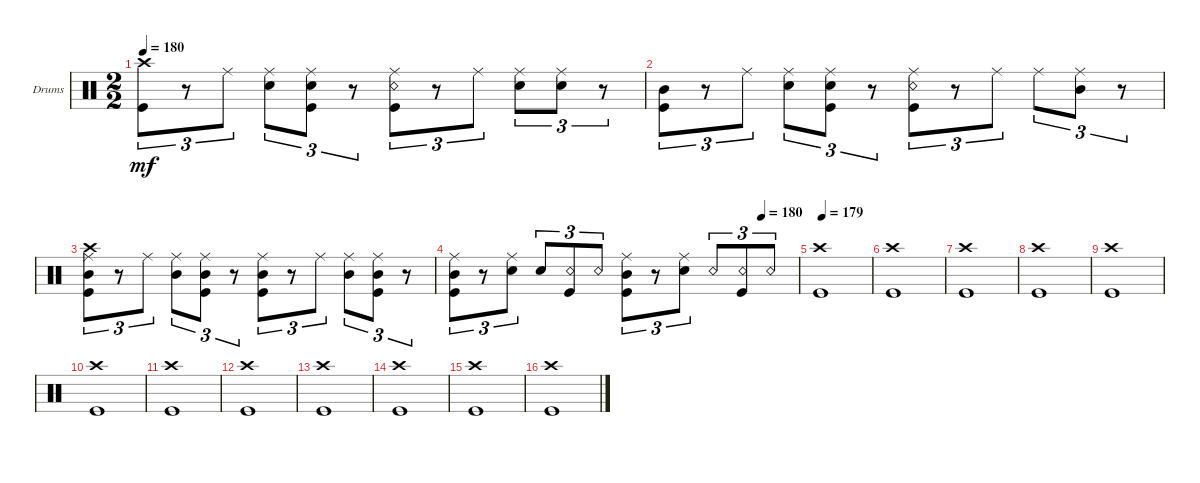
\defaultSystemsLayout 4
\bracketExtendMode groupsimilarinstruments
\firstSystemTrackNameOrientation horizontal
\otherSystemsTrackNameOrientation horizontal
\track ("Drumkit" "Drums") {instrument percussion}
\staff {score}
\articulation defaults
\ts (2 2)
\tempo 180
\clef neutral
\ks c
("Kick (hit)" "Crash high (hit)").8{tu (3 2) dy mf} r.8{tu (3 2)} "Ride (middle)".8{tu (3 2)} ("Snare (hit) 2" "Ride (middle)").8{tu (3 2)} ("Kick (hit)" "Snare (hit) 2" "Ride (middle)").8{tu (3 2)} r.8{tu (3 2)} ("Kick (hit)" "Ride (middle)" "Snare (rim shot)").8{tu (3 2)} r.8{tu (3 2)} "Ride (middle)".8{tu (3 2)} ("Snare (hit) 2" "Ride (middle)").8{tu (3 2)} ("Snare (hit) 2" "Ride (middle)").8{tu (3 2)} r.8{tu (3 2)} |
("Kick (hit)" "Mid Tom (hit)").8{tu (3 2)} r.8{tu (3 2)} "Ride (middle)".8{tu (3 2)} ("Snare (hit) 2" "Ride (middle)").8{tu (3 2)} ("Kick (hit)" "Snare (hit) 2" "Ride (middle)").8{tu (3 2)} r.8{tu (3 2)} ("Kick (hit)" "Ride (middle)" "Snare (rim shot)").8{tu (3 2)} r.8{tu (3 2)} "Ride (middle)".8{tu (3 2)} "Ride (middle)".8{tu (3 2)} ("Mid Tom (hit)" "Ride (middle)").8{tu (3 2)} r.8{tu (3 2)} |
("Kick (hit)" "Ride (middle)" "Mid Tom (hit)" "Crash high (hit)").8{tu (3 2)} r.8{tu (3 2)} "Ride (middle)".8{tu (3 2)} ("Ride (middle)" "Mid Tom (hit)").8{tu (3 2)} ("Kick (hit)" "Mid Tom (hit)" "Ride (middle)").8{tu (3 2)} r.8{tu (3 2)} ("Kick (hit)" "Ride (middle)" "Mid Tom (hit)").8{tu (3 2)} r.8{tu (3 2)} "Ride (middle)".8{tu (3 2)} ("Ride (middle)" "Mid Tom (hit)").8{tu (3 2)} ("Kick (hit)" "Mid Tom (hit)" "Ride (middle)").8{tu (3 2)} r.8{tu (3 2)} |
\tempo (180 0.894737)
("Kick (hit)" "Ride (middle)" "Mid Tom (hit)").8{tu (3 2)} r.8{tu (3 2)} ("Snare (hit) 2" "Ride (middle)").8{tu (3 2)} "Snare (hit) 2".8{tu (3 2)} ("Kick (hit)" "Snare (rim shot)").8{tu (3 2)} "Snare (rim shot)".8{tu (3 2)} ("Kick (hit)" "Ride (middle)" "Mid Tom (hit)").8{tu (3 2)} r.8{tu (3 2)} ("Snare (hit) 2" "Ride (middle)").8{tu (3 2)} "Snare (rim shot)".8{tu (3 2)} ("Kick (hit)" "Snare (rim shot)").8{tu (3 2)} "Snare (rim shot)".8{tu (3 2)} |
\tempo (179 0.0526316)
("Crash high (hit)" "Kick (hit)").1 |
("Crash high (hit)" "Kick (hit)").1 |
("Crash high (hit)" "Kick (hit)").1 |
("Crash high (hit)" "Kick (hit)").1 |
("Crash high (hit)" "Kick (hit)").1 |
("Crash high (hit)" "Kick (hit)").1 |
("Crash high (hit)" "Kick (hit)").1 |
("Crash high (hit)" "Kick (hit)").1 |
("Crash high (hit)" "Kick (hit)").1 |
("Crash high (hit)" "Kick (hit)").1 |
("Crash high (hit)" "Kick (hit)").1 |
("Crash high (hit)" "Kick (hit)").1
